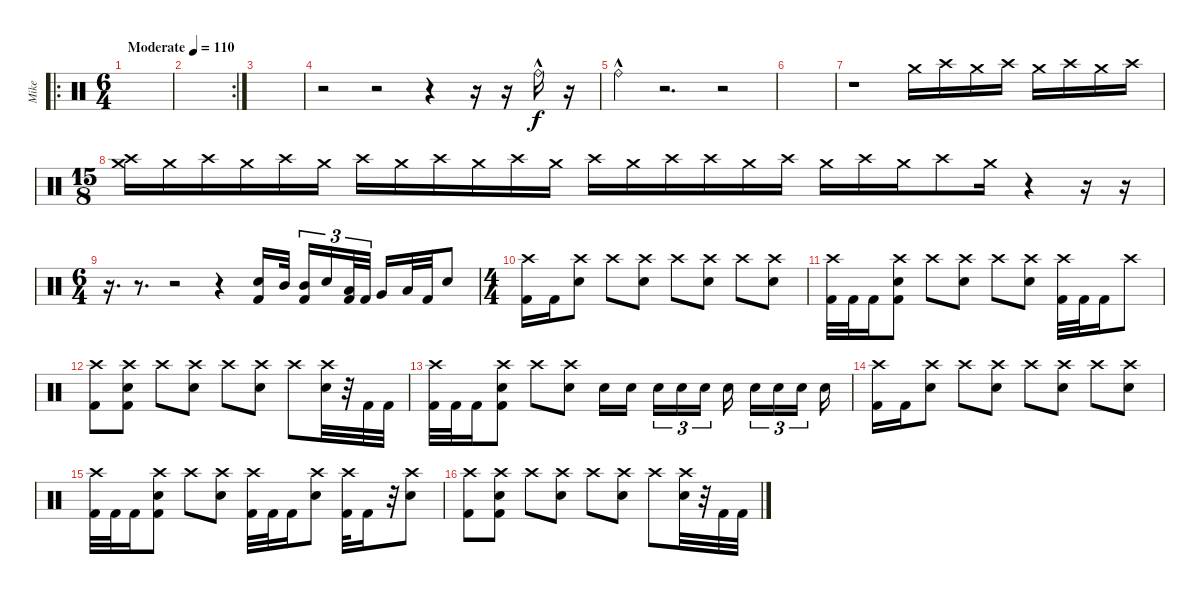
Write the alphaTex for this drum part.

\track ("Mike" "Mike") {instrument percussion}
\staff {score}
\articulation defaults
\ro
\ts (6 4)
\tempo (110 "Moderate")
\clef neutral
\ks c
|
\rc 2
|
|
r.2 r.2 r.4 r.16 r.16 "Ride (bell)"{hac}.16 r.16 |
"Ride (bell)"{hac}.4 r.2{d} r.2 |
|
r.1{volume 0} "Crash medium (hit)".16{volume 16} "Crash high (hit)".16 "Crash medium (hit)".16 "Crash high (hit)".16 "Crash medium (hit)".16 "Crash high (hit)".16 "Crash medium (hit)".16 "Crash high (hit)".16 |
\ts (15 8)
("Crash high (hit)" "Crash medium (hit)").16 "Crash medium (hit)".16 "Crash high (hit)".16 "Crash medium (hit)".16 "Crash high (hit)".16 "Crash medium (hit)".16 "Crash high (hit)".16 "Crash medium (hit)".16 "Crash high (hit)".16 "Crash medium (hit)".16 "Crash high (hit)".16 "Crash medium (hit)".16 "Crash high (hit)".16 "Crash medium (hit)".16 "Crash high (hit)".16 "Crash high (hit)".16 "Crash medium (hit)".16 "Crash high (hit)".16 "Crash medium (hit)".16 "Crash high (hit)".16 "Crash medium (hit)".16 "Crash high (hit)".8 "Crash medium (hit)".16 r.4 r.16 r.16 |
\ts (6 4)
r.16{d} r.8{d} r.2 r.4 ("Electric Snare (hit)" "Kick (hit) 2").16 "Mid Tom (hit)".32{beam splitsecondary} ("Mid Tom (hit)" "Kick (hit) 2").16{tu (3 2)} "Electric Snare (hit)".16{tu (3 2)} ("Low Tom (hit)" "Kick (hit) 2").32{tu (3 2)} "Kick (hit) 2".32{tu (3 2) beam splitsecondary} "Very Low Tom (hit)".16 "Low Tom (hit)".32 "Kick (hit) 2".32 "Electric Snare (hit)".8 |
\ts (4 4)
("Crash high (hit)" "Kick (hit) 2").16 "Kick (hit) 2".16 ("Crash high (hit)" "Electric Snare (hit)").8 "Crash high (hit)".8 ("Crash high (hit)" "Electric Snare (hit)").8 "Crash high (hit)".8 ("Crash high (hit)" "Electric Snare (hit)").8 "Crash high (hit)".8 ("Crash high (hit)" "Electric Snare (hit)").8 |
("Crash high (hit)" "Kick (hit) 2").32 "Kick (hit) 2".32 "Kick (hit) 2".16 ("Crash high (hit)" "Electric Snare (hit)" "Kick (hit) 2").8 "Crash high (hit)".8 ("Crash high (hit)" "Electric Snare (hit)").8 "Crash high (hit)".8 ("Crash high (hit)" "Electric Snare (hit)").8 ("Crash high (hit)" "Kick (hit) 2").32 "Kick (hit) 2".32 "Kick (hit) 2".16 "Crash high (hit)".8 |
("Crash high (hit)" "Kick (hit) 2").8 ("Crash high (hit)" "Electric Snare (hit)" "Kick (hit) 2").8 "Crash high (hit)".8 ("Crash high (hit)" "Electric Snare (hit)").8 "Crash high (hit)".8 ("Crash high (hit)" "Electric Snare (hit)").8 "Crash high (hit)".8 ("Crash high (hit)" "Electric Snare (hit)").32 r.32 "Kick (hit) 2".32 "Kick (hit) 2".32 |
("Crash high (hit)" "Kick (hit) 2").32 "Kick (hit) 2".32 "Kick (hit) 2".16 ("Crash high (hit)" "Electric Snare (hit)" "Kick (hit) 2").8 "Crash high (hit)".8 ("Crash high (hit)" "Electric Snare (hit)").8 "Electric Snare (hit)".16 "Electric Snare (hit)".16{beam splitsecondary} "Electric Snare (hit)".16{tu (3 2)} "Electric Snare (hit)".16{tu (3 2)} "Electric Snare (hit)".16{tu (3 2)} "Electric Snare (hit)".16{beam splitsecondary} "Electric Snare (hit)".16{tu (3 2)} "Electric Snare (hit)".16{tu (3 2)} "Electric Snare (hit)".16{tu (3 2) beam splitsecondary} "Electric Snare (hit)".16 |
("Crash high (hit)" "Kick (hit) 2").16 "Kick (hit) 2".16 ("Crash high (hit)" "Electric Snare (hit)").8 "Crash high (hit)".8 ("Crash high (hit)" "Electric Snare (hit)").8 "Crash high (hit)".8 ("Crash high (hit)" "Electric Snare (hit)").8 "Crash high (hit)".8 ("Crash high (hit)" "Electric Snare (hit)").8 |
("Crash high (hit)" "Kick (hit) 2").32 "Kick (hit) 2".32 "Kick (hit) 2".16 ("Crash high (hit)" "Electric Snare (hit)" "Kick (hit) 2").8 "Crash high (hit)".8 ("Crash high (hit)" "Electric Snare (hit)").8 ("Crash high (hit)" "Kick (hit) 2").32 "Kick (hit) 2".32 "Kick (hit) 2".16 ("Crash high (hit)" "Electric Snare (hit)").8 ("Crash high (hit)" "Kick (hit) 2").32 "Kick (hit) 2".16 r.32 ("Crash high (hit)" "Electric Snare (hit)").8 |
("Crash high (hit)" "Kick (hit) 2").8 ("Crash high (hit)" "Electric Snare (hit)" "Kick (hit) 2").8 "Crash high (hit)".8 ("Crash high (hit)" "Electric Snare (hit)").8 "Crash high (hit)".8 ("Crash high (hit)" "Electric Snare (hit)").8 "Crash high (hit)".8 ("Crash high (hit)" "Electric Snare (hit)").32 r.32 "Kick (hit) 2".32 "Kick (hit) 2".32
